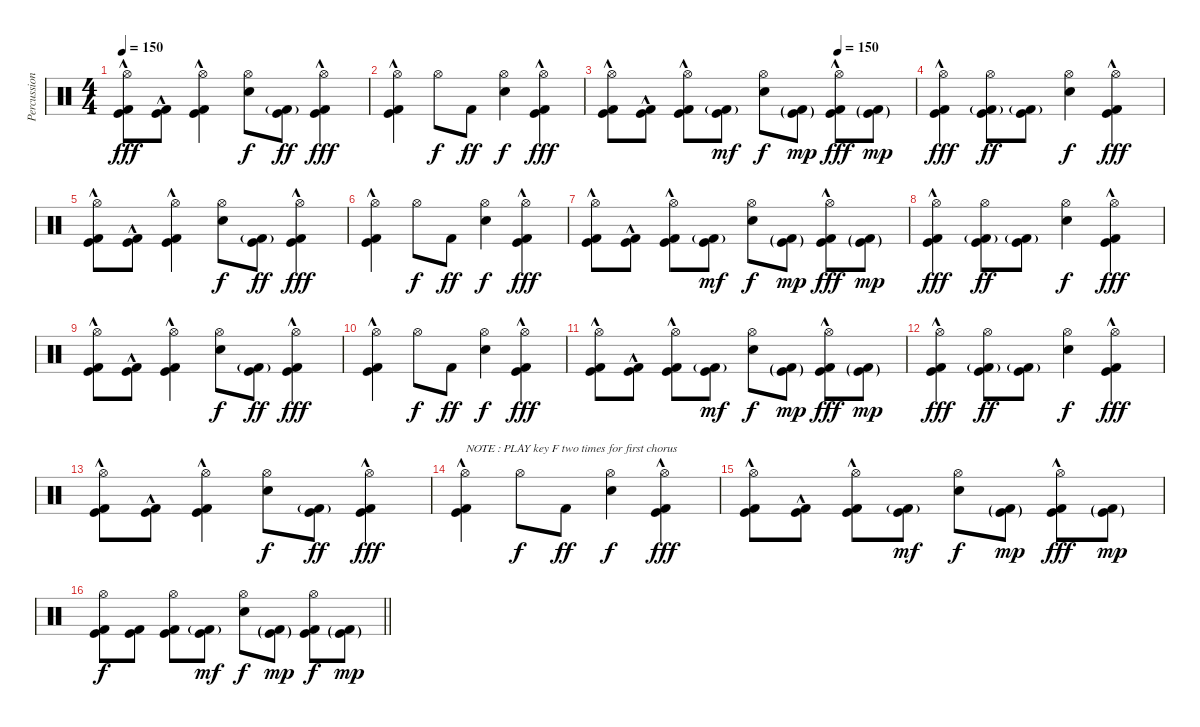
\track ("Percussion" "Percussion") {instrument percussion}
\staff {score}
\articulation defaults
\ts (4 4)
\tempo 150
\clef neutral
\ks c
("Hi-Hat (open)" "Kick (hit) 2"{hac} "Kick (hit)"{hac}).8{dy fff} ("Kick (hit) 2"{hac} "Kick (hit)").8 ("Hi-Hat (open)" "Kick (hit) 2"{hac} "Kick (hit)").4 ("Hi-Hat (open)" "Electric Snare (hit)").8{dy f} ("Kick (hit) 2"{g} "Kick (hit)").8{dy ff} ("Hi-Hat (open)" "Kick (hit) 2"{hac} "Kick (hit)"{hac}).4{dy fff} |
("Hi-Hat (open)" "Kick (hit) 2"{hac} "Kick (hit)"{hac}).4 "Hi-Hat (open)".8{dy f} "Kick (hit) 2".8{dy ff} ("Hi-Hat (open)" "Electric Snare (hit)").4{dy f} ("Hi-Hat (open)" "Kick (hit) 2"{hac} "Kick (hit)"{hac}).4{dy fff} |
\tempo (150 0.75)
("Hi-Hat (open)" "Kick (hit) 2"{hac} "Kick (hit)"{hac}).8 ("Kick (hit) 2"{hac} "Kick (hit)").8 ("Hi-Hat (open)" "Kick (hit) 2"{hac} "Kick (hit)").8 ("Kick (hit) 2"{g} "Kick (hit)").8{dy mf} ("Hi-Hat (open)" "Electric Snare (hit)").8{dy f} ("Kick (hit) 2"{g} "Kick (hit)"{g}).8{dy mp} ("Hi-Hat (open)" "Kick (hit) 2"{hac} "Kick (hit)"{hac}).8{dy fff} ("Kick (hit) 2"{g} "Kick (hit)"{g}).8{dy mp} |
("Hi-Hat (open)" "Kick (hit) 2"{hac} "Kick (hit)"{hac}).4{dy fff} ("Hi-Hat (open)" "Kick (hit) 2"{g} "Kick (hit)").8{dy ff} ("Kick (hit) 2"{g} "Kick (hit)").8 ("Hi-Hat (open)" "Electric Snare (hit)").4{dy f} ("Hi-Hat (open)" "Kick (hit) 2"{hac} "Kick (hit)"{hac}).4{dy fff} |
("Hi-Hat (open)" "Kick (hit) 2"{hac} "Kick (hit)"{hac}).8 ("Kick (hit) 2"{hac} "Kick (hit)").8 ("Hi-Hat (open)" "Kick (hit) 2"{hac} "Kick (hit)").4 ("Hi-Hat (open)" "Electric Snare (hit)").8{dy f} ("Kick (hit) 2"{g} "Kick (hit)").8{dy ff} ("Hi-Hat (open)" "Kick (hit) 2"{hac} "Kick (hit)"{hac}).4{dy fff} |
("Hi-Hat (open)" "Kick (hit) 2"{hac} "Kick (hit)"{hac}).4 "Hi-Hat (open)".8{dy f} "Kick (hit) 2".8{dy ff} ("Hi-Hat (open)" "Electric Snare (hit)").4{dy f} ("Hi-Hat (open)" "Kick (hit) 2"{hac} "Kick (hit)"{hac}).4{dy fff} |
("Hi-Hat (open)" "Kick (hit) 2"{hac} "Kick (hit)"{hac}).8 ("Kick (hit) 2"{hac} "Kick (hit)").8 ("Hi-Hat (open)" "Kick (hit) 2"{hac} "Kick (hit)").8 ("Kick (hit) 2"{g} "Kick (hit)").8{dy mf} ("Hi-Hat (open)" "Electric Snare (hit)").8{dy f} ("Kick (hit) 2"{g} "Kick (hit)"{g}).8{dy mp} ("Hi-Hat (open)" "Kick (hit) 2"{hac} "Kick (hit)"{hac}).8{dy fff} ("Kick (hit) 2"{g} "Kick (hit)"{g}).8{dy mp} |
("Hi-Hat (open)" "Kick (hit) 2"{hac} "Kick (hit)"{hac}).4{dy fff} ("Hi-Hat (open)" "Kick (hit) 2"{g} "Kick (hit)").8{dy ff} ("Kick (hit) 2"{g} "Kick (hit)").8 ("Hi-Hat (open)" "Electric Snare (hit)").4{dy f} ("Hi-Hat (open)" "Kick (hit) 2"{hac} "Kick (hit)"{hac}).4{dy fff} |
("Hi-Hat (open)" "Kick (hit) 2"{hac} "Kick (hit)"{hac}).8 ("Kick (hit) 2"{hac} "Kick (hit)").8 ("Hi-Hat (open)" "Kick (hit) 2"{hac} "Kick (hit)").4 ("Hi-Hat (open)" "Electric Snare (hit)").8{dy f} ("Kick (hit) 2"{g} "Kick (hit)").8{dy ff} ("Hi-Hat (open)" "Kick (hit) 2"{hac} "Kick (hit)"{hac}).4{dy fff} |
("Hi-Hat (open)" "Kick (hit) 2"{hac} "Kick (hit)"{hac}).4 "Hi-Hat (open)".8{dy f} "Kick (hit) 2".8{dy ff} ("Hi-Hat (open)" "Electric Snare (hit)").4{dy f} ("Hi-Hat (open)" "Kick (hit) 2"{hac} "Kick (hit)"{hac}).4{dy fff} |
("Hi-Hat (open)" "Kick (hit) 2"{hac} "Kick (hit)"{hac}).8 ("Kick (hit) 2"{hac} "Kick (hit)").8 ("Hi-Hat (open)" "Kick (hit) 2"{hac} "Kick (hit)").8 ("Kick (hit) 2"{g} "Kick (hit)").8{dy mf} ("Hi-Hat (open)" "Electric Snare (hit)").8{dy f} ("Kick (hit) 2"{g} "Kick (hit)"{g}).8{dy mp} ("Hi-Hat (open)" "Kick (hit) 2"{hac} "Kick (hit)"{hac}).8{dy fff} ("Kick (hit) 2"{g} "Kick (hit)"{g}).8{dy mp} |
("Hi-Hat (open)" "Kick (hit) 2"{hac} "Kick (hit)"{hac}).4{dy fff} ("Hi-Hat (open)" "Kick (hit) 2"{g} "Kick (hit)").8{dy ff} ("Kick (hit) 2"{g} "Kick (hit)").8 ("Hi-Hat (open)" "Electric Snare (hit)").4{dy f} ("Hi-Hat (open)" "Kick (hit) 2"{hac} "Kick (hit)"{hac}).4{dy fff} |
("Hi-Hat (open)" "Kick (hit) 2"{hac} "Kick (hit)"{hac}).8 ("Kick (hit) 2"{hac} "Kick (hit)").8 ("Hi-Hat (open)" "Kick (hit) 2"{hac} "Kick (hit)").4 ("Hi-Hat (open)" "Electric Snare (hit)").8{dy f} ("Kick (hit) 2"{g} "Kick (hit)").8{dy ff} ("Hi-Hat (open)" "Kick (hit) 2"{hac} "Kick (hit)"{hac}).4{dy fff} |
("Hi-Hat (open)" "Kick (hit) 2"{hac} "Kick (hit)"{hac}).4{txt "NOTE : PLAY key F two times for first chorus"} "Hi-Hat (open)".8{dy f} "Kick (hit) 2".8{dy ff} ("Hi-Hat (open)" "Electric Snare (hit)").4{dy f} ("Hi-Hat (open)" "Kick (hit) 2"{hac} "Kick (hit)"{hac}).4{dy fff} |
("Hi-Hat (open)" "Kick (hit) 2"{hac} "Kick (hit)"{hac}).8 ("Kick (hit) 2"{hac} "Kick (hit)").8 ("Hi-Hat (open)" "Kick (hit) 2"{hac} "Kick (hit)").8 ("Kick (hit) 2"{g} "Kick (hit)").8{dy mf} ("Hi-Hat (open)" "Electric Snare (hit)").8{dy f} ("Kick (hit) 2"{g} "Kick (hit)"{g}).8{dy mp} ("Hi-Hat (open)" "Kick (hit) 2"{hac} "Kick (hit)"{hac}).8{dy fff} ("Kick (hit) 2"{g} "Kick (hit)"{g}).8{dy mp} |
\barLineRight lightlight
("Hi-Hat (open)" "Kick (hit) 2" "Kick (hit)").8{dy f} ("Kick (hit) 2" "Kick (hit)").8 ("Hi-Hat (open)" "Kick (hit) 2" "Kick (hit)").8 ("Kick (hit) 2"{g} "Kick (hit)").8{dy mf} ("Hi-Hat (open)" "Electric Snare (hit)").8{dy f} ("Kick (hit) 2"{g} "Kick (hit)"{g}).8{dy mp} ("Hi-Hat (open)" "Kick (hit) 2" "Kick (hit)").8{dy f} ("Kick (hit) 2"{g} "Kick (hit)"{g}).8{dy mp}
